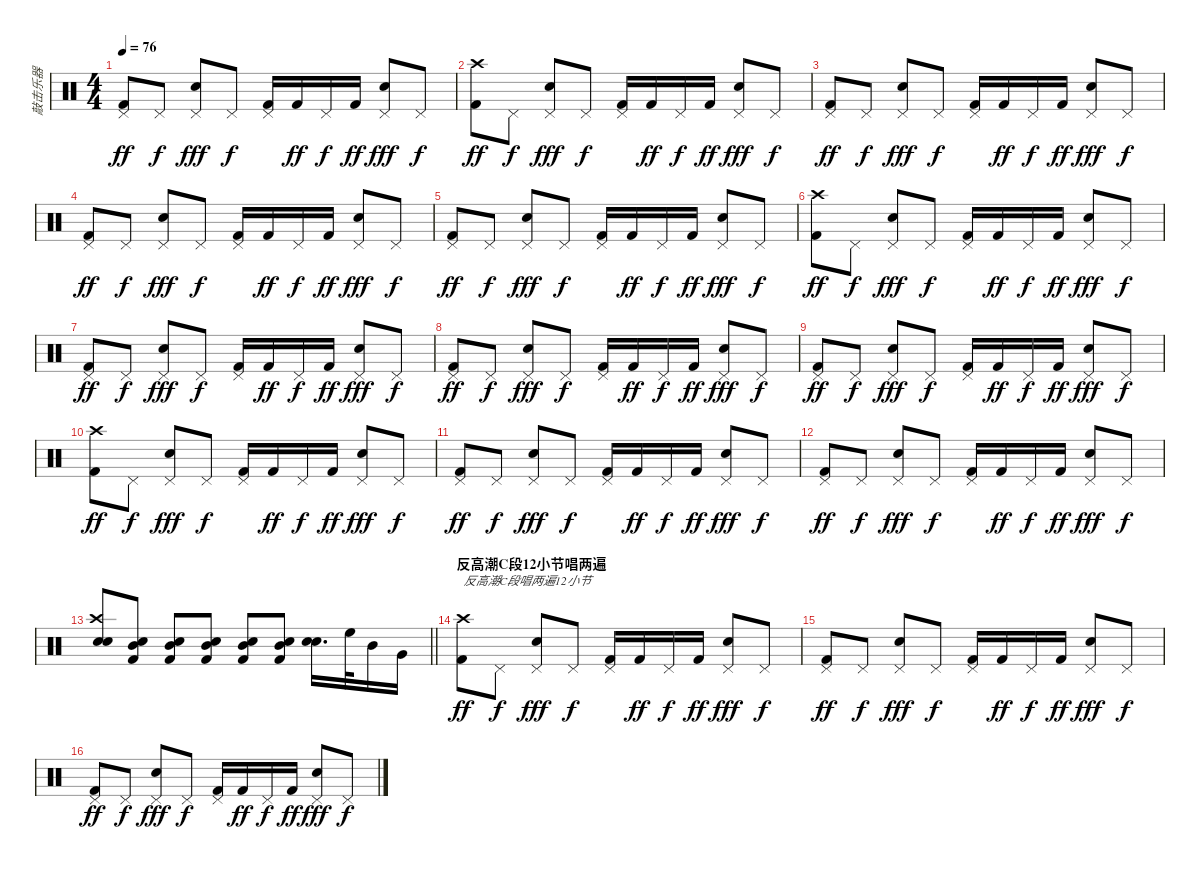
\track ("敲击乐器" "敲击乐器") {instrument percussion}
\staff {score}
\articulation defaults
\ts (4 4)
\tempo 76
\clef neutral
\ks c
("Pedal Hi-Hat (hit)" "Kick (hit) 2").8{dy ff} "Pedal Hi-Hat (hit)".8{dy f} ("Pedal Hi-Hat (hit)" "Electric Snare (hit)").8{dy fff} "Pedal Hi-Hat (hit)".8{dy f} ("Pedal Hi-Hat (hit)" "Kick (hit) 2").16 "Kick (hit) 2".16{dy ff} "Pedal Hi-Hat (hit)".16{dy f} "Kick (hit) 2".16{dy ff} ("Pedal Hi-Hat (hit)" "Electric Snare (hit)").8{dy fff} "Pedal Hi-Hat (hit)".8{dy f} |
("Crash high (hit)" "Kick (hit) 2").8{dy ff} "Pedal Hi-Hat (hit)".8{dy f} ("Pedal Hi-Hat (hit)" "Electric Snare (hit)").8{dy fff} "Pedal Hi-Hat (hit)".8{dy f} ("Pedal Hi-Hat (hit)" "Kick (hit) 2").16 "Kick (hit) 2".16{dy ff} "Pedal Hi-Hat (hit)".16{dy f} "Kick (hit) 2".16{dy ff} ("Pedal Hi-Hat (hit)" "Electric Snare (hit)").8{dy fff} "Pedal Hi-Hat (hit)".8{dy f} |
("Pedal Hi-Hat (hit)" "Kick (hit) 2").8{dy ff} "Pedal Hi-Hat (hit)".8{dy f} ("Pedal Hi-Hat (hit)" "Electric Snare (hit)").8{dy fff} "Pedal Hi-Hat (hit)".8{dy f} ("Pedal Hi-Hat (hit)" "Kick (hit) 2").16 "Kick (hit) 2".16{dy ff} "Pedal Hi-Hat (hit)".16{dy f} "Kick (hit) 2".16{dy ff} ("Pedal Hi-Hat (hit)" "Electric Snare (hit)").8{dy fff} "Pedal Hi-Hat (hit)".8{dy f} |
("Pedal Hi-Hat (hit)" "Kick (hit) 2").8{dy ff} "Pedal Hi-Hat (hit)".8{dy f} ("Pedal Hi-Hat (hit)" "Electric Snare (hit)").8{dy fff} "Pedal Hi-Hat (hit)".8{dy f} ("Pedal Hi-Hat (hit)" "Kick (hit) 2").16 "Kick (hit) 2".16{dy ff} "Pedal Hi-Hat (hit)".16{dy f} "Kick (hit) 2".16{dy ff} ("Pedal Hi-Hat (hit)" "Electric Snare (hit)").8{dy fff} "Pedal Hi-Hat (hit)".8{dy f} |
("Pedal Hi-Hat (hit)" "Kick (hit) 2").8{dy ff} "Pedal Hi-Hat (hit)".8{dy f} ("Pedal Hi-Hat (hit)" "Electric Snare (hit)").8{dy fff} "Pedal Hi-Hat (hit)".8{dy f} ("Pedal Hi-Hat (hit)" "Kick (hit) 2").16 "Kick (hit) 2".16{dy ff} "Pedal Hi-Hat (hit)".16{dy f} "Kick (hit) 2".16{dy ff} ("Pedal Hi-Hat (hit)" "Electric Snare (hit)").8{dy fff} "Pedal Hi-Hat (hit)".8{dy f} |
("Crash high (hit)" "Kick (hit) 2").8{dy ff} "Pedal Hi-Hat (hit)".8{dy f} ("Pedal Hi-Hat (hit)" "Electric Snare (hit)").8{dy fff} "Pedal Hi-Hat (hit)".8{dy f} ("Pedal Hi-Hat (hit)" "Kick (hit) 2").16 "Kick (hit) 2".16{dy ff} "Pedal Hi-Hat (hit)".16{dy f} "Kick (hit) 2".16{dy ff} ("Pedal Hi-Hat (hit)" "Electric Snare (hit)").8{dy fff} "Pedal Hi-Hat (hit)".8{dy f} |
("Pedal Hi-Hat (hit)" "Kick (hit) 2").8{dy ff} "Pedal Hi-Hat (hit)".8{dy f} ("Pedal Hi-Hat (hit)" "Electric Snare (hit)").8{dy fff} "Pedal Hi-Hat (hit)".8{dy f} ("Pedal Hi-Hat (hit)" "Kick (hit) 2").16 "Kick (hit) 2".16{dy ff} "Pedal Hi-Hat (hit)".16{dy f} "Kick (hit) 2".16{dy ff} ("Pedal Hi-Hat (hit)" "Electric Snare (hit)").8{dy fff} "Pedal Hi-Hat (hit)".8{dy f} |
("Pedal Hi-Hat (hit)" "Kick (hit) 2").8{dy ff} "Pedal Hi-Hat (hit)".8{dy f} ("Pedal Hi-Hat (hit)" "Electric Snare (hit)").8{dy fff} "Pedal Hi-Hat (hit)".8{dy f} ("Pedal Hi-Hat (hit)" "Kick (hit) 2").16 "Kick (hit) 2".16{dy ff} "Pedal Hi-Hat (hit)".16{dy f} "Kick (hit) 2".16{dy ff} ("Pedal Hi-Hat (hit)" "Electric Snare (hit)").8{dy fff} "Pedal Hi-Hat (hit)".8{dy f} |
("Pedal Hi-Hat (hit)" "Kick (hit) 2").8{dy ff} "Pedal Hi-Hat (hit)".8{dy f} ("Pedal Hi-Hat (hit)" "Electric Snare (hit)").8{dy fff} "Pedal Hi-Hat (hit)".8{dy f} ("Pedal Hi-Hat (hit)" "Kick (hit) 2").16 "Kick (hit) 2".16{dy ff} "Pedal Hi-Hat (hit)".16{dy f} "Kick (hit) 2".16{dy ff} ("Pedal Hi-Hat (hit)" "Electric Snare (hit)").8{dy fff} "Pedal Hi-Hat (hit)".8{dy f} |
("Crash high (hit)" "Kick (hit) 2").8{dy ff} "Pedal Hi-Hat (hit)".8{dy f} ("Pedal Hi-Hat (hit)" "Electric Snare (hit)").8{dy fff} "Pedal Hi-Hat (hit)".8{dy f} ("Pedal Hi-Hat (hit)" "Kick (hit) 2").16 "Kick (hit) 2".16{dy ff} "Pedal Hi-Hat (hit)".16{dy f} "Kick (hit) 2".16{dy ff} ("Pedal Hi-Hat (hit)" "Electric Snare (hit)").8{dy fff} "Pedal Hi-Hat (hit)".8{dy f} |
("Pedal Hi-Hat (hit)" "Kick (hit) 2").8{dy ff} "Pedal Hi-Hat (hit)".8{dy f} ("Pedal Hi-Hat (hit)" "Electric Snare (hit)").8{dy fff} "Pedal Hi-Hat (hit)".8{dy f} ("Pedal Hi-Hat (hit)" "Kick (hit) 2").16 "Kick (hit) 2".16{dy ff} "Pedal Hi-Hat (hit)".16{dy f} "Kick (hit) 2".16{dy ff} ("Pedal Hi-Hat (hit)" "Electric Snare (hit)").8{dy fff} "Pedal Hi-Hat (hit)".8{dy f} |
("Pedal Hi-Hat (hit)" "Kick (hit) 2").8{dy ff} "Pedal Hi-Hat (hit)".8{dy f} ("Pedal Hi-Hat (hit)" "Electric Snare (hit)").8{dy fff} "Pedal Hi-Hat (hit)".8{dy f} ("Pedal Hi-Hat (hit)" "Kick (hit) 2").16 "Kick (hit) 2".16{dy ff} "Pedal Hi-Hat (hit)".16{dy f} "Kick (hit) 2".16{dy ff} ("Pedal Hi-Hat (hit)" "Electric Snare (hit)").8{dy fff} "Pedal Hi-Hat (hit)".8{dy f} |
\barLineRight lightlight
("Crash high (hit)" "Snare (hit) 2" "Electric Snare (hit)").8 ("Mid Tom (hit)" "Kick (hit) 2" "Snare (hit) 2").8 ("Mid Tom (hit)" "Kick (hit) 2" "Snare (hit) 2").8 ("Mid Tom (hit)" "Kick (hit) 2" "Snare (hit) 2").8 ("Mid Tom (hit)" "Kick (hit) 2" "Snare (hit) 2").8 ("Mid Tom (hit)" "Kick (hit) 2" "Snare (hit) 2").8 ("Snare (hit) 2" "Electric Snare (hit)").16{d} "High Floor Tom (hit)".32 "Mid Tom (hit)".16 "Very Low Tom (hit)".16 |
\section ("" "反高潮C段12小节唱两遍")
("Crash high (hit)" "Kick (hit) 2").8{txt "反高潮C段唱两遍12小节" dy ff} "Pedal Hi-Hat (hit)".8{dy f} ("Pedal Hi-Hat (hit)" "Electric Snare (hit)").8{dy fff} "Pedal Hi-Hat (hit)".8{dy f} ("Pedal Hi-Hat (hit)" "Kick (hit) 2").16 "Kick (hit) 2".16{dy ff} "Pedal Hi-Hat (hit)".16{dy f} "Kick (hit) 2".16{dy ff} ("Pedal Hi-Hat (hit)" "Electric Snare (hit)").8{dy fff} "Pedal Hi-Hat (hit)".8{dy f} |
("Pedal Hi-Hat (hit)" "Kick (hit) 2").8{dy ff} "Pedal Hi-Hat (hit)".8{dy f} ("Pedal Hi-Hat (hit)" "Electric Snare (hit)").8{dy fff} "Pedal Hi-Hat (hit)".8{dy f} ("Pedal Hi-Hat (hit)" "Kick (hit) 2").16 "Kick (hit) 2".16{dy ff} "Pedal Hi-Hat (hit)".16{dy f} "Kick (hit) 2".16{dy ff} ("Pedal Hi-Hat (hit)" "Electric Snare (hit)").8{dy fff} "Pedal Hi-Hat (hit)".8{dy f} |
("Pedal Hi-Hat (hit)" "Kick (hit) 2").8{dy ff} "Pedal Hi-Hat (hit)".8{dy f} ("Pedal Hi-Hat (hit)" "Electric Snare (hit)").8{dy fff} "Pedal Hi-Hat (hit)".8{dy f} ("Pedal Hi-Hat (hit)" "Kick (hit) 2").16 "Kick (hit) 2".16{dy ff} "Pedal Hi-Hat (hit)".16{dy f} "Kick (hit) 2".16{dy ff} ("Pedal Hi-Hat (hit)" "Electric Snare (hit)").8{dy fff} "Pedal Hi-Hat (hit)".8{dy f}
